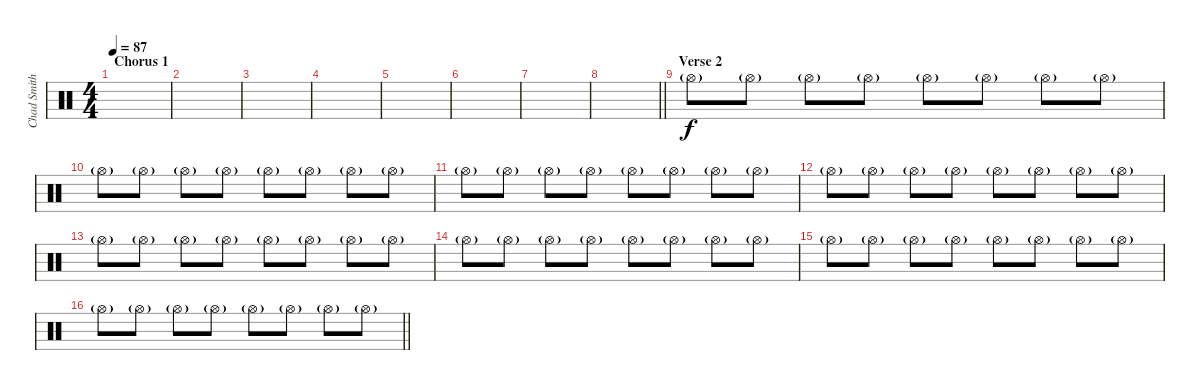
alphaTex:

\track ("Chad Smith" "Chad Smith") {instrument percussion}
\staff {score}
\articulation defaults
\ts (4 4)
\section ("" "Chorus 1")
\tempo 87
\clef neutral
\ks c
|
|
|
|
|
|
|
\barLineRight lightlight
|
\section ("" "Verse 2")
"Hi-Hat (open)"{g}.8 "Hi-Hat (open)"{g}.8 "Hi-Hat (open)"{g}.8 "Hi-Hat (open)"{g}.8 "Hi-Hat (open)"{g}.8 "Hi-Hat (open)"{g}.8 "Hi-Hat (open)"{g}.8 "Hi-Hat (open)"{g}.8 |
"Hi-Hat (open)"{g}.8 "Hi-Hat (open)"{g}.8 "Hi-Hat (open)"{g}.8 "Hi-Hat (open)"{g}.8 "Hi-Hat (open)"{g}.8 "Hi-Hat (open)"{g}.8 "Hi-Hat (open)"{g}.8 "Hi-Hat (open)"{g}.8 |
"Hi-Hat (open)"{g}.8 "Hi-Hat (open)"{g}.8 "Hi-Hat (open)"{g}.8 "Hi-Hat (open)"{g}.8 "Hi-Hat (open)"{g}.8 "Hi-Hat (open)"{g}.8 "Hi-Hat (open)"{g}.8 "Hi-Hat (open)"{g}.8 |
"Hi-Hat (open)"{g}.8 "Hi-Hat (open)"{g}.8 "Hi-Hat (open)"{g}.8 "Hi-Hat (open)"{g}.8 "Hi-Hat (open)"{g}.8 "Hi-Hat (open)"{g}.8 "Hi-Hat (open)"{g}.8 "Hi-Hat (open)"{g}.8 |
"Hi-Hat (open)"{g}.8 "Hi-Hat (open)"{g}.8 "Hi-Hat (open)"{g}.8 "Hi-Hat (open)"{g}.8 "Hi-Hat (open)"{g}.8 "Hi-Hat (open)"{g}.8 "Hi-Hat (open)"{g}.8 "Hi-Hat (open)"{g}.8 |
"Hi-Hat (open)"{g}.8 "Hi-Hat (open)"{g}.8 "Hi-Hat (open)"{g}.8 "Hi-Hat (open)"{g}.8 "Hi-Hat (open)"{g}.8 "Hi-Hat (open)"{g}.8 "Hi-Hat (open)"{g}.8 "Hi-Hat (open)"{g}.8 |
"Hi-Hat (open)"{g}.8 "Hi-Hat (open)"{g}.8 "Hi-Hat (open)"{g}.8 "Hi-Hat (open)"{g}.8 "Hi-Hat (open)"{g}.8 "Hi-Hat (open)"{g}.8 "Hi-Hat (open)"{g}.8 "Hi-Hat (open)"{g}.8 |
\barLineRight lightlight "Hi-Hat (open)"{g}.8 "Hi-Hat (open)"{g}.8 "Hi-Hat (open)"{g}.8 "Hi-Hat (open)"{g}.8 "Hi-Hat (open)"{g}.8 "Hi-Hat (open)"{g}.8 "Hi-Hat (open)"{g}.8 "Hi-Hat (open)"{g}.8
